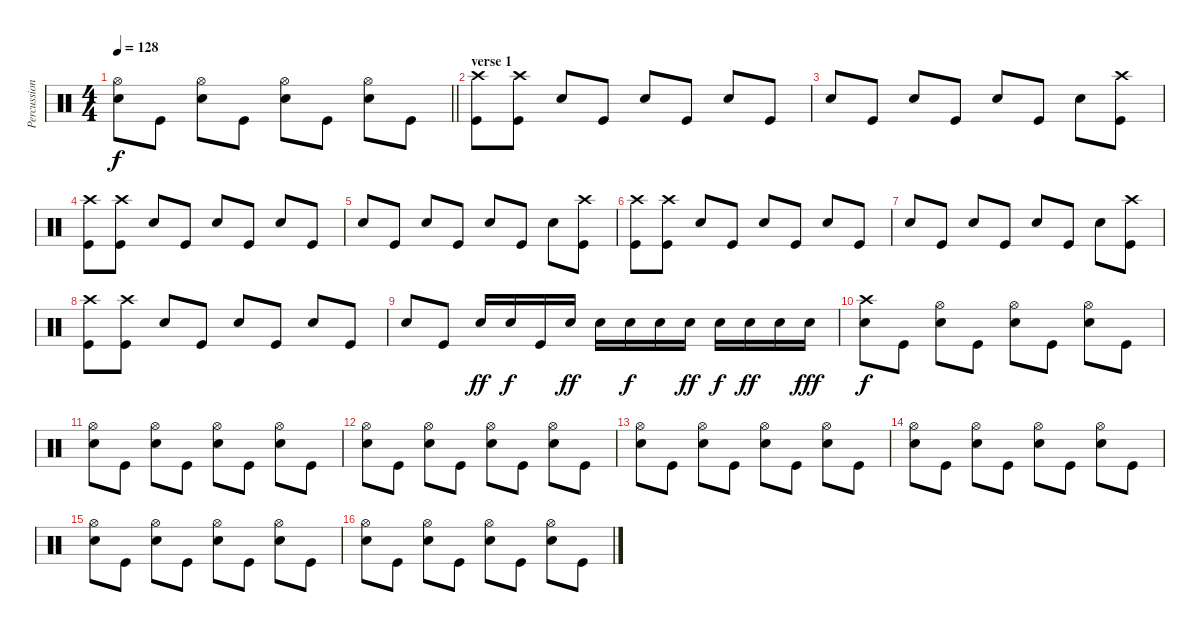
\track ("Percussion" "Percussion") {instrument percussion}
\staff {score}
\articulation defaults
\ts (4 4)
\tempo 128
\clef neutral
\barLineRight lightlight
\ks c
("Hi-Hat (open)" "Snare (hit) 2").8{dy f} "Kick (hit)".8 ("Hi-Hat (open)" "Snare (hit) 2").8 "Kick (hit)".8 ("Hi-Hat (open)" "Snare (hit) 2").8 "Kick (hit)".8 ("Hi-Hat (open)" "Snare (hit) 2").8 "Kick (hit)".8 |
\section ("" "verse 1")
("Crash high (hit)" "Kick (hit)").8 ("Crash high (hit)" "Kick (hit)").8 "Snare (hit) 2".8 "Kick (hit)".8 "Snare (hit) 2".8 "Kick (hit)".8 "Snare (hit) 2".8 "Kick (hit)".8 |
"Snare (hit) 2".8 "Kick (hit)".8 "Snare (hit) 2".8 "Kick (hit)".8 "Snare (hit) 2".8 "Kick (hit)".8 "Snare (hit) 2".8 ("Crash high (hit)" "Kick (hit)").8 |
("Crash high (hit)" "Kick (hit)").8 ("Crash high (hit)" "Kick (hit)").8 "Snare (hit) 2".8 "Kick (hit)".8 "Snare (hit) 2".8 "Kick (hit)".8 "Snare (hit) 2".8 "Kick (hit)".8 |
"Snare (hit) 2".8 "Kick (hit)".8 "Snare (hit) 2".8 "Kick (hit)".8 "Snare (hit) 2".8 "Kick (hit)".8 "Snare (hit) 2".8 ("Crash high (hit)" "Kick (hit)").8 |
("Crash high (hit)" "Kick (hit)").8 ("Crash high (hit)" "Kick (hit)").8 "Snare (hit) 2".8 "Kick (hit)".8 "Snare (hit) 2".8 "Kick (hit)".8 "Snare (hit) 2".8 "Kick (hit)".8 |
"Snare (hit) 2".8 "Kick (hit)".8 "Snare (hit) 2".8 "Kick (hit)".8 "Snare (hit) 2".8 "Kick (hit)".8 "Snare (hit) 2".8 ("Crash high (hit)" "Kick (hit)").8 |
("Crash high (hit)" "Kick (hit)").8 ("Crash high (hit)" "Kick (hit)").8 "Snare (hit) 2".8 "Kick (hit)".8 "Snare (hit) 2".8 "Kick (hit)".8 "Snare (hit) 2".8 "Kick (hit)".8 |
"Snare (hit) 2".8 "Kick (hit)".8 "Snare (hit) 2".16{dy ff} "Snare (hit) 2".16{dy f} "Kick (hit)".16 "Snare (hit) 2".16{dy ff} "Snare (hit) 2".16 "Snare (hit) 2".16{dy f} "Snare (hit) 2".16 "Snare (hit) 2".16{dy ff} "Snare (hit) 2".16{dy f} "Snare (hit) 2".16{dy ff} "Snare (hit) 2".16 "Snare (hit) 2".16{dy fff} |
("Crash high (hit)" "Snare (hit) 2").8{dy f} "Kick (hit)".8 ("Hi-Hat (open)" "Snare (hit) 2").8 "Kick (hit)".8 ("Hi-Hat (open)" "Snare (hit) 2").8 "Kick (hit)".8 ("Hi-Hat (open)" "Snare (hit) 2").8 "Kick (hit)".8 |
("Hi-Hat (open)" "Snare (hit) 2").8 "Kick (hit)".8 ("Hi-Hat (open)" "Snare (hit) 2").8 "Kick (hit)".8 ("Hi-Hat (open)" "Snare (hit) 2").8 "Kick (hit)".8 ("Hi-Hat (open)" "Snare (hit) 2").8 "Kick (hit)".8 |
("Hi-Hat (open)" "Snare (hit) 2").8 "Kick (hit)".8 ("Hi-Hat (open)" "Snare (hit) 2").8 "Kick (hit)".8 ("Hi-Hat (open)" "Snare (hit) 2").8 "Kick (hit)".8 ("Hi-Hat (open)" "Snare (hit) 2").8 "Kick (hit)".8 |
("Hi-Hat (open)" "Snare (hit) 2").8 "Kick (hit)".8 ("Hi-Hat (open)" "Snare (hit) 2").8 "Kick (hit)".8 ("Hi-Hat (open)" "Snare (hit) 2").8 "Kick (hit)".8 ("Hi-Hat (open)" "Snare (hit) 2").8 "Kick (hit)".8 |
("Hi-Hat (open)" "Snare (hit) 2").8 "Kick (hit)".8 ("Hi-Hat (open)" "Snare (hit) 2").8 "Kick (hit)".8 ("Hi-Hat (open)" "Snare (hit) 2").8 "Kick (hit)".8 ("Hi-Hat (open)" "Snare (hit) 2").8 "Kick (hit)".8 |
("Hi-Hat (open)" "Snare (hit) 2").8 "Kick (hit)".8 ("Hi-Hat (open)" "Snare (hit) 2").8 "Kick (hit)".8 ("Hi-Hat (open)" "Snare (hit) 2").8 "Kick (hit)".8 ("Hi-Hat (open)" "Snare (hit) 2").8 "Kick (hit)".8 |
("Hi-Hat (open)" "Snare (hit) 2").8 "Kick (hit)".8 ("Hi-Hat (open)" "Snare (hit) 2").8 "Kick (hit)".8 ("Hi-Hat (open)" "Snare (hit) 2").8 "Kick (hit)".8 ("Hi-Hat (open)" "Snare (hit) 2").8 "Kick (hit)".8
